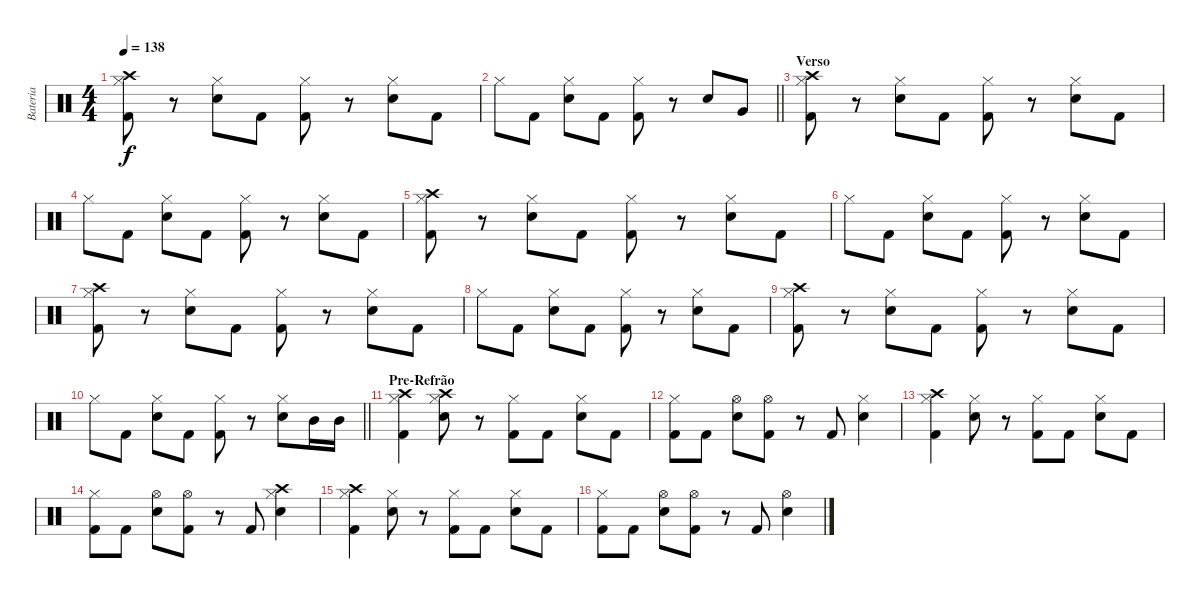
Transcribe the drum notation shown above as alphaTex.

\track ("Bateria" "Bateria") {instrument percussion}
\staff {score}
\articulation defaults
\ts (4 4)
\tempo 138
\clef neutral
\ks c
("Crash high (hit)" "Hi-Hat (closed)" "Kick (hit) 2").8{dy f} r.8 ("Hi-Hat (closed)" "Electric Snare (hit)").8 "Kick (hit) 2".8 ("Hi-Hat (closed)" "Kick (hit) 2").8 r.8 ("Hi-Hat (closed)" "Electric Snare (hit)").8 "Kick (hit) 2".8 |
\barLineRight lightlight "Hi-Hat (closed)".8 "Kick (hit) 2".8
("Hi-Hat (closed)" "Electric Snare (hit)").8 "Kick (hit) 2".8 ("Hi-Hat (closed)" "Kick (hit) 2").8 r.8 "Electric Snare (hit)".8 "Very Low Tom (hit)".8 |
\section ("" "Verso")
("Crash high (hit)" "Hi-Hat (closed)" "Kick (hit) 2").8 r.8 ("Hi-Hat (closed)" "Electric Snare (hit)").8 "Kick (hit) 2".8 ("Hi-Hat (closed)" "Kick (hit) 2").8 r.8 ("Hi-Hat (closed)" "Electric Snare (hit)").8 "Kick (hit) 2".8 |
"Hi-Hat (closed)".8 "Kick (hit) 2".8 ("Hi-Hat (closed)" "Electric Snare (hit)").8 "Kick (hit) 2".8 ("Hi-Hat (closed)" "Kick (hit) 2").8 r.8 ("Hi-Hat (closed)" "Electric Snare (hit)").8 "Kick (hit) 2".8 |
("Crash high (hit)" "Hi-Hat (closed)" "Kick (hit) 2").8 r.8 ("Hi-Hat (closed)" "Electric Snare (hit)").8 "Kick (hit) 2".8 ("Hi-Hat (closed)" "Kick (hit) 2").8 r.8 ("Hi-Hat (closed)" "Electric Snare (hit)").8 "Kick (hit) 2".8 |
"Hi-Hat (closed)".8 "Kick (hit) 2".8 ("Hi-Hat (closed)" "Electric Snare (hit)").8 "Kick (hit) 2".8 ("Hi-Hat (closed)" "Kick (hit) 2").8 r.8 ("Hi-Hat (closed)" "Electric Snare (hit)").8 "Kick (hit) 2".8 |
("Crash high (hit)" "Hi-Hat (closed)" "Kick (hit) 2").8 r.8 ("Hi-Hat (closed)" "Electric Snare (hit)").8 "Kick (hit) 2".8 ("Hi-Hat (closed)" "Kick (hit) 2").8 r.8 ("Hi-Hat (closed)" "Electric Snare (hit)").8 "Kick (hit) 2".8 |
"Hi-Hat (closed)".8 "Kick (hit) 2".8 ("Hi-Hat (closed)" "Electric Snare (hit)").8 "Kick (hit) 2".8 ("Hi-Hat (closed)" "Kick (hit) 2").8 r.8 ("Hi-Hat (closed)" "Electric Snare (hit)").8 "Kick (hit) 2".8 |
("Crash high (hit)" "Hi-Hat (closed)" "Kick (hit) 2").8 r.8 ("Hi-Hat (closed)" "Electric Snare (hit)").8 "Kick (hit) 2".8 ("Hi-Hat (closed)" "Kick (hit) 2").8 r.8 ("Hi-Hat (closed)" "Electric Snare (hit)").8 "Kick (hit) 2".8 |
\barLineRight lightlight "Hi-Hat (closed)".8 "Kick (hit) 2".8
("Hi-Hat (closed)" "Electric Snare (hit)").8 "Kick (hit) 2".8 ("Hi-Hat (closed)" "Kick (hit) 2").8 r.8 ("Hi-Hat (closed)" "Electric Snare (hit)").8 "Mid Tom (hit)".16 "Mid Tom (hit)".16 |
\section ("" "Pre-Refrão")
("Crash high (hit)" "Hi-Hat (closed)" "Kick (hit) 2").4 ("Crash high (hit)" "Hi-Hat (closed)" "Electric Snare (hit)").8 r.8 ("Hi-Hat (closed)" "Kick (hit) 2").8 "Kick (hit) 2".8 ("Hi-Hat (closed)" "Electric Snare (hit)").8 "Kick (hit) 2".8 |
("Hi-Hat (closed)" "Kick (hit) 2").8 "Kick (hit) 2".8 ("Hi-Hat (open)" "Electric Snare (hit)").8 ("Hi-Hat (open)" "Kick (hit) 2").8 r.8 "Kick (hit) 2".8 ("Hi-Hat (closed)" "Electric Snare (hit)").4 |
("Crash high (hit)" "Hi-Hat (closed)" "Kick (hit) 2").4 ("Hi-Hat (closed)" "Electric Snare (hit)").8 r.8 ("Hi-Hat (closed)" "Kick (hit) 2").8 "Kick (hit) 2".8 ("Hi-Hat (closed)" "Electric Snare (hit)").8 "Kick (hit) 2".8 |
("Hi-Hat (closed)" "Kick (hit) 2").8 "Kick (hit) 2".8 ("Hi-Hat (open)" "Electric Snare (hit)").8 ("Hi-Hat (open)" "Kick (hit) 2").8 r.8 "Kick (hit) 2".8 ("Crash high (hit)" "Hi-Hat (closed)" "Electric Snare (hit)").4 |
("Crash high (hit)" "Hi-Hat (closed)" "Kick (hit) 2").4 ("Hi-Hat (closed)" "Electric Snare (hit)").8 r.8 ("Hi-Hat (closed)" "Kick (hit) 2").8 "Kick (hit) 2".8 ("Hi-Hat (closed)" "Electric Snare (hit)").8 "Kick (hit) 2".8 |
("Hi-Hat (closed)" "Kick (hit) 2").8 "Kick (hit) 2".8 ("Hi-Hat (open)" "Electric Snare (hit)").8 ("Hi-Hat (open)" "Kick (hit) 2").8 r.8 "Kick (hit) 2".8 ("Hi-Hat (open)" "Electric Snare (hit)").4
